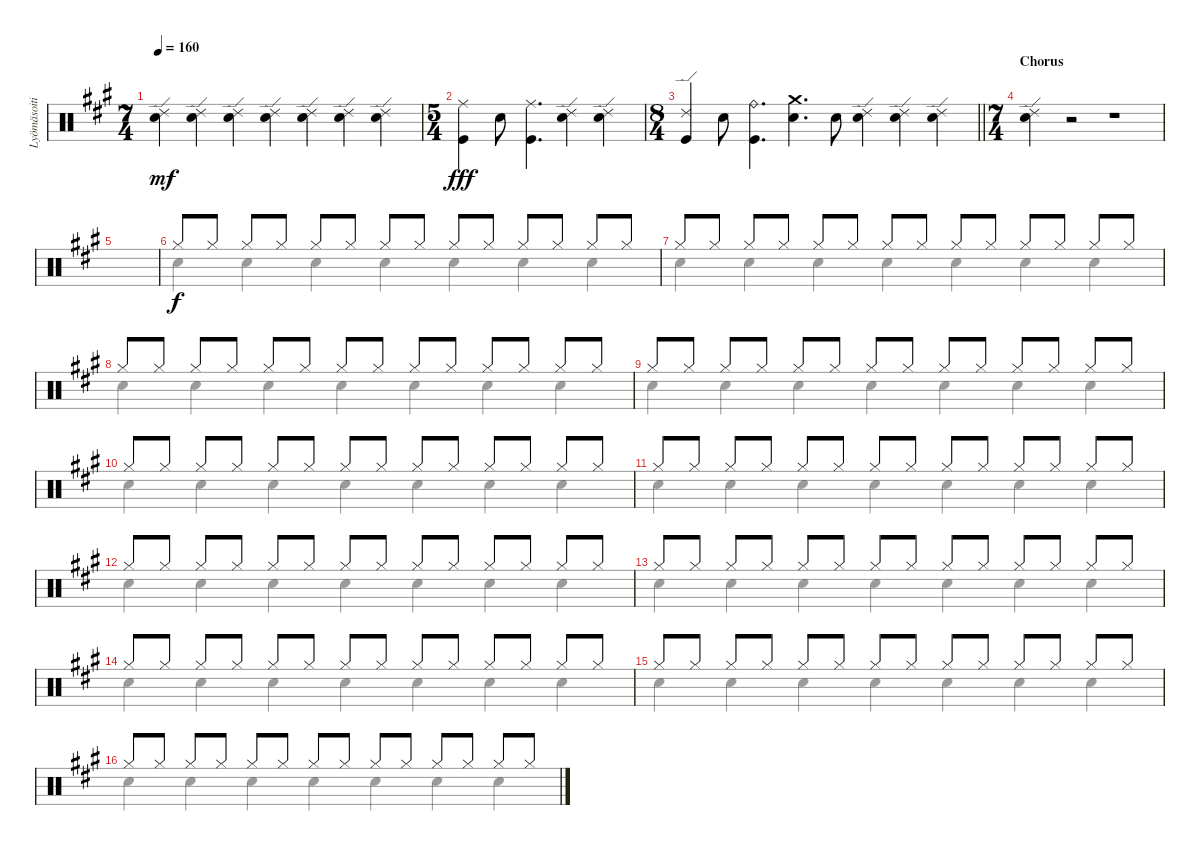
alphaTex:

\track ("Lyömäsoitin" "Lyömäsoiti") {instrument percussion}
\staff {score}
\articulation defaults
\voice
\ts (7 4)
\tempo 160
\clef neutral
\ks a
("Ride (edge) 2" "Snare (hit) 2").4{dy mf} ("Ride (edge) 2" "Snare (hit) 2").4 ("Ride (edge) 2" "Snare (hit) 2").4 ("Ride (edge) 2" "Snare (hit) 2").4 ("Ride (edge) 2" "Snare (hit) 2").4 ("Ride (edge) 2" "Snare (hit) 2").4 ("Ride (edge) 2" "Snare (hit) 2").4 |
\ts (5 4)
("Ride (middle)" "Kick (hit)").4{dy fff} "Snare (hit) 2".8 ("Ride (middle)" "Kick (hit)").4{d} ("Ride (edge) 2" "Snare (hit) 2").4 ("Ride (edge) 2" "Snare (hit) 2").4 |
\ts (8 4)
\barLineRight lightlight
("Ride (edge) 2" "Kick (hit)").4 "Snare (hit) 2".8 ("Ride (bell)" "Kick (hit)").4{d} ("Crash medium (hit)" "Snare (hit) 2").4{d} "Snare (hit) 2".8 ("Ride (edge) 2" "Snare (hit) 2").4 ("Ride (edge) 2" "Snare (hit) 2").4 ("Ride (edge) 2" "Snare (hit) 2").4 |
\ts (7 4)
\section ("" "Chorus")
("Ride (edge) 2" "Snare (hit) 2").4 r.2 r.1 |
|
"Hi-Hat (closed)".8{dy f} "Hi-Hat (closed)".8 "Hi-Hat (closed)".8 "Hi-Hat (closed)".8 "Hi-Hat (closed)".8 "Hi-Hat (closed)".8 "Hi-Hat (closed)".8 "Hi-Hat (closed)".8 "Hi-Hat (closed)".8 "Hi-Hat (closed)".8 "Hi-Hat (closed)".8 "Hi-Hat (closed)".8 "Hi-Hat (closed)".8 "Hi-Hat (closed)".8 |
"Hi-Hat (closed)".8 "Hi-Hat (closed)".8 "Hi-Hat (closed)".8 "Hi-Hat (closed)".8 "Hi-Hat (closed)".8 "Hi-Hat (closed)".8 "Hi-Hat (closed)".8 "Hi-Hat (closed)".8 "Hi-Hat (closed)".8 "Hi-Hat (closed)".8 "Hi-Hat (closed)".8 "Hi-Hat (closed)".8 "Hi-Hat (closed)".8 "Hi-Hat (closed)".8 |
"Hi-Hat (closed)".8 "Hi-Hat (closed)".8 "Hi-Hat (closed)".8 "Hi-Hat (closed)".8 "Hi-Hat (closed)".8 "Hi-Hat (closed)".8 "Hi-Hat (closed)".8 "Hi-Hat (closed)".8 "Hi-Hat (closed)".8 "Hi-Hat (closed)".8 "Hi-Hat (closed)".8 "Hi-Hat (closed)".8 "Hi-Hat (closed)".8 "Hi-Hat (closed)".8 |
"Hi-Hat (closed)".8 "Hi-Hat (closed)".8 "Hi-Hat (closed)".8 "Hi-Hat (closed)".8 "Hi-Hat (closed)".8 "Hi-Hat (closed)".8 "Hi-Hat (closed)".8 "Hi-Hat (closed)".8 "Hi-Hat (closed)".8 "Hi-Hat (closed)".8 "Hi-Hat (closed)".8 "Hi-Hat (closed)".8 "Hi-Hat (closed)".8 "Hi-Hat (closed)".8 |
"Hi-Hat (closed)".8 "Hi-Hat (closed)".8 "Hi-Hat (closed)".8 "Hi-Hat (closed)".8 "Hi-Hat (closed)".8 "Hi-Hat (closed)".8 "Hi-Hat (closed)".8 "Hi-Hat (closed)".8 "Hi-Hat (closed)".8 "Hi-Hat (closed)".8 "Hi-Hat (closed)".8 "Hi-Hat (closed)".8 "Hi-Hat (closed)".8 "Hi-Hat (closed)".8 |
"Hi-Hat (closed)".8 "Hi-Hat (closed)".8 "Hi-Hat (closed)".8 "Hi-Hat (closed)".8 "Hi-Hat (closed)".8 "Hi-Hat (closed)".8 "Hi-Hat (closed)".8 "Hi-Hat (closed)".8 "Hi-Hat (closed)".8 "Hi-Hat (closed)".8 "Hi-Hat (closed)".8 "Hi-Hat (closed)".8 "Hi-Hat (closed)".8 "Hi-Hat (closed)".8 |
"Hi-Hat (closed)".8 "Hi-Hat (closed)".8 "Hi-Hat (closed)".8 "Hi-Hat (closed)".8 "Hi-Hat (closed)".8 "Hi-Hat (closed)".8 "Hi-Hat (closed)".8 "Hi-Hat (closed)".8 "Hi-Hat (closed)".8 "Hi-Hat (closed)".8 "Hi-Hat (closed)".8 "Hi-Hat (closed)".8 "Hi-Hat (closed)".8 "Hi-Hat (closed)".8 |
"Hi-Hat (closed)".8 "Hi-Hat (closed)".8 "Hi-Hat (closed)".8 "Hi-Hat (closed)".8 "Hi-Hat (closed)".8 "Hi-Hat (closed)".8 "Hi-Hat (closed)".8 "Hi-Hat (closed)".8 "Hi-Hat (closed)".8 "Hi-Hat (closed)".8 "Hi-Hat (closed)".8 "Hi-Hat (closed)".8 "Hi-Hat (closed)".8 "Hi-Hat (closed)".8 |
"Hi-Hat (closed)".8 "Hi-Hat (closed)".8 "Hi-Hat (closed)".8 "Hi-Hat (closed)".8 "Hi-Hat (closed)".8 "Hi-Hat (closed)".8 "Hi-Hat (closed)".8 "Hi-Hat (closed)".8 "Hi-Hat (closed)".8 "Hi-Hat (closed)".8 "Hi-Hat (closed)".8 "Hi-Hat (closed)".8 "Hi-Hat (closed)".8 "Hi-Hat (closed)".8 |
"Hi-Hat (closed)".8 "Hi-Hat (closed)".8 "Hi-Hat (closed)".8 "Hi-Hat (closed)".8 "Hi-Hat (closed)".8 "Hi-Hat (closed)".8 "Hi-Hat (closed)".8 "Hi-Hat (closed)".8 "Hi-Hat (closed)".8 "Hi-Hat (closed)".8 "Hi-Hat (closed)".8 "Hi-Hat (closed)".8 "Hi-Hat (closed)".8 "Hi-Hat (closed)".8 |
"Hi-Hat (closed)".8 "Hi-Hat (closed)".8 "Hi-Hat (closed)".8 "Hi-Hat (closed)".8 "Hi-Hat (closed)".8 "Hi-Hat (closed)".8 "Hi-Hat (closed)".8 "Hi-Hat (closed)".8 "Hi-Hat (closed)".8 "Hi-Hat (closed)".8 "Hi-Hat (closed)".8 "Hi-Hat (closed)".8 "Hi-Hat (closed)".8 "Hi-Hat (closed)".8
\voice
\clef neutral
\ottava regular
\simile none
\ks a
|
|
\barLineRight lightlight
|
|
|
"Snare (hit) 2".4 "Snare (hit) 2".4 "Snare (hit) 2".4 "Snare (hit) 2".4 "Snare (hit) 2".4 "Snare (hit) 2".4 "Snare (hit) 2".4 |
"Snare (hit) 2".4 "Snare (hit) 2".4 "Snare (hit) 2".4 "Snare (hit) 2".4 "Snare (hit) 2".4 "Snare (hit) 2".4 "Snare (hit) 2".4 |
"Snare (hit) 2".4 "Snare (hit) 2".4 "Snare (hit) 2".4 "Snare (hit) 2".4 "Snare (hit) 2".4 "Snare (hit) 2".4 "Snare (hit) 2".4 |
"Snare (hit) 2".4 "Snare (hit) 2".4 "Snare (hit) 2".4 "Snare (hit) 2".4 "Snare (hit) 2".4 "Snare (hit) 2".4 "Snare (hit) 2".4 |
"Snare (hit) 2".4 "Snare (hit) 2".4 "Snare (hit) 2".4 "Snare (hit) 2".4 "Snare (hit) 2".4 "Snare (hit) 2".4 "Snare (hit) 2".4 |
"Snare (hit) 2".4 "Snare (hit) 2".4 "Snare (hit) 2".4 "Snare (hit) 2".4 "Snare (hit) 2".4 "Snare (hit) 2".4 "Snare (hit) 2".4 |
"Snare (hit) 2".4 "Snare (hit) 2".4 "Snare (hit) 2".4 "Snare (hit) 2".4 "Snare (hit) 2".4 "Snare (hit) 2".4 "Snare (hit) 2".4 |
"Snare (hit) 2".4 "Snare (hit) 2".4 "Snare (hit) 2".4 "Snare (hit) 2".4 "Snare (hit) 2".4 "Snare (hit) 2".4 "Snare (hit) 2".4 |
"Snare (hit) 2".4 "Snare (hit) 2".4 "Snare (hit) 2".4 "Snare (hit) 2".4 "Snare (hit) 2".4 "Snare (hit) 2".4 "Snare (hit) 2".4 |
"Snare (hit) 2".4 "Snare (hit) 2".4 "Snare (hit) 2".4 "Snare (hit) 2".4 "Snare (hit) 2".4 "Snare (hit) 2".4 "Snare (hit) 2".4 |
"Snare (hit) 2".4 "Snare (hit) 2".4 "Snare (hit) 2".4 "Snare (hit) 2".4 "Snare (hit) 2".4 "Snare (hit) 2".4 "Snare (hit) 2".4
